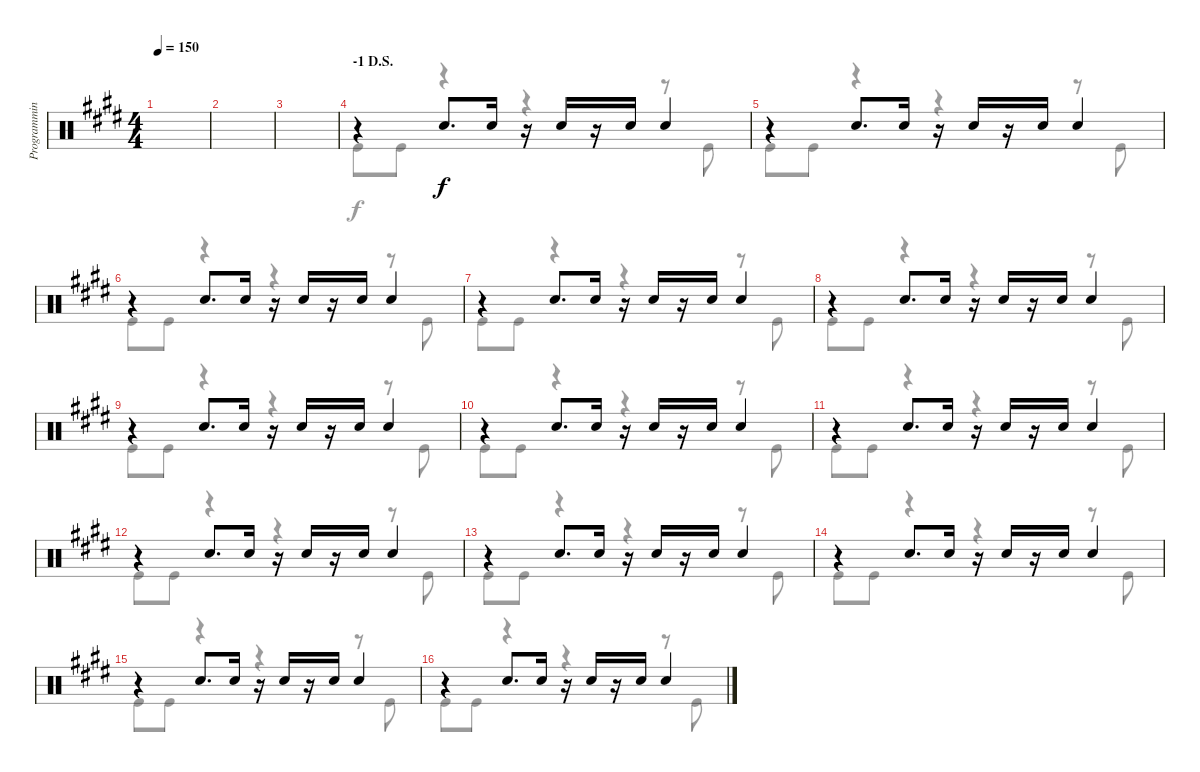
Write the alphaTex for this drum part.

\track ("Programming" "Programmin") {instrument percussion}
\staff {score}
\articulation defaults
\voice
\ts (4 4)
\tempo 150
\clef neutral
\ks e
|
|
|
\section ("" "-1 D.S.")
r.4 "Snare (hit) 2".8{d} "Snare (hit) 2".16 r.16 "Snare (hit) 2".16 r.16 "Snare (hit) 2".16 "Snare (hit) 2".4 |
r.4 "Snare (hit) 2".8{d} "Snare (hit) 2".16 r.16 "Snare (hit) 2".16 r.16 "Snare (hit) 2".16 "Snare (hit) 2".4 |
r.4 "Snare (hit) 2".8{d} "Snare (hit) 2".16 r.16 "Snare (hit) 2".16 r.16 "Snare (hit) 2".16 "Snare (hit) 2".4 |
r.4 "Snare (hit) 2".8{d} "Snare (hit) 2".16 r.16 "Snare (hit) 2".16 r.16 "Snare (hit) 2".16 "Snare (hit) 2".4 |
r.4 "Snare (hit) 2".8{d} "Snare (hit) 2".16 r.16 "Snare (hit) 2".16 r.16 "Snare (hit) 2".16 "Snare (hit) 2".4 |
r.4 "Snare (hit) 2".8{d} "Snare (hit) 2".16 r.16 "Snare (hit) 2".16 r.16 "Snare (hit) 2".16 "Snare (hit) 2".4 |
r.4 "Snare (hit) 2".8{d} "Snare (hit) 2".16 r.16 "Snare (hit) 2".16 r.16 "Snare (hit) 2".16 "Snare (hit) 2".4 |
r.4 "Snare (hit) 2".8{d} "Snare (hit) 2".16 r.16 "Snare (hit) 2".16 r.16 "Snare (hit) 2".16 "Snare (hit) 2".4 |
r.4 "Snare (hit) 2".8{d} "Snare (hit) 2".16 r.16 "Snare (hit) 2".16 r.16 "Snare (hit) 2".16 "Snare (hit) 2".4 |
r.4 "Snare (hit) 2".8{d} "Snare (hit) 2".16 r.16 "Snare (hit) 2".16 r.16 "Snare (hit) 2".16 "Snare (hit) 2".4 |
r.4 "Snare (hit) 2".8{d} "Snare (hit) 2".16 r.16 "Snare (hit) 2".16 r.16 "Snare (hit) 2".16 "Snare (hit) 2".4 |
r.4 "Snare (hit) 2".8{d} "Snare (hit) 2".16 r.16 "Snare (hit) 2".16 r.16 "Snare (hit) 2".16 "Snare (hit) 2".4 |
r.4 "Snare (hit) 2".8{d} "Snare (hit) 2".16 r.16 "Snare (hit) 2".16 r.16 "Snare (hit) 2".16 "Snare (hit) 2".4
\voice
\clef neutral
\ottava regular
\simile none
\ks e
|
|
|
"Kick (hit)".8 "Kick (hit)".8 r.4 r.4 r.8 "Kick (hit)".8 |
"Kick (hit)".8 "Kick (hit)".8 r.4 r.4 r.8 "Kick (hit)".8 |
"Kick (hit)".8 "Kick (hit)".8 r.4 r.4 r.8 "Kick (hit)".8 |
"Kick (hit)".8 "Kick (hit)".8 r.4 r.4 r.8 "Kick (hit)".8 |
"Kick (hit)".8 "Kick (hit)".8 r.4 r.4 r.8 "Kick (hit)".8 |
"Kick (hit)".8 "Kick (hit)".8 r.4 r.4 r.8 "Kick (hit)".8 |
"Kick (hit)".8 "Kick (hit)".8 r.4 r.4 r.8 "Kick (hit)".8 |
"Kick (hit)".8 "Kick (hit)".8 r.4 r.4 r.8 "Kick (hit)".8 |
"Kick (hit)".8 "Kick (hit)".8 r.4 r.4 r.8 "Kick (hit)".8 |
"Kick (hit)".8 "Kick (hit)".8 r.4 r.4 r.8 "Kick (hit)".8 |
"Kick (hit)".8 "Kick (hit)".8 r.4 r.4 r.8 "Kick (hit)".8 |
"Kick (hit)".8 "Kick (hit)".8 r.4 r.4 r.8 "Kick (hit)".8 |
"Kick (hit)".8 "Kick (hit)".8 r.4 r.4 r.8 "Kick (hit)".8
